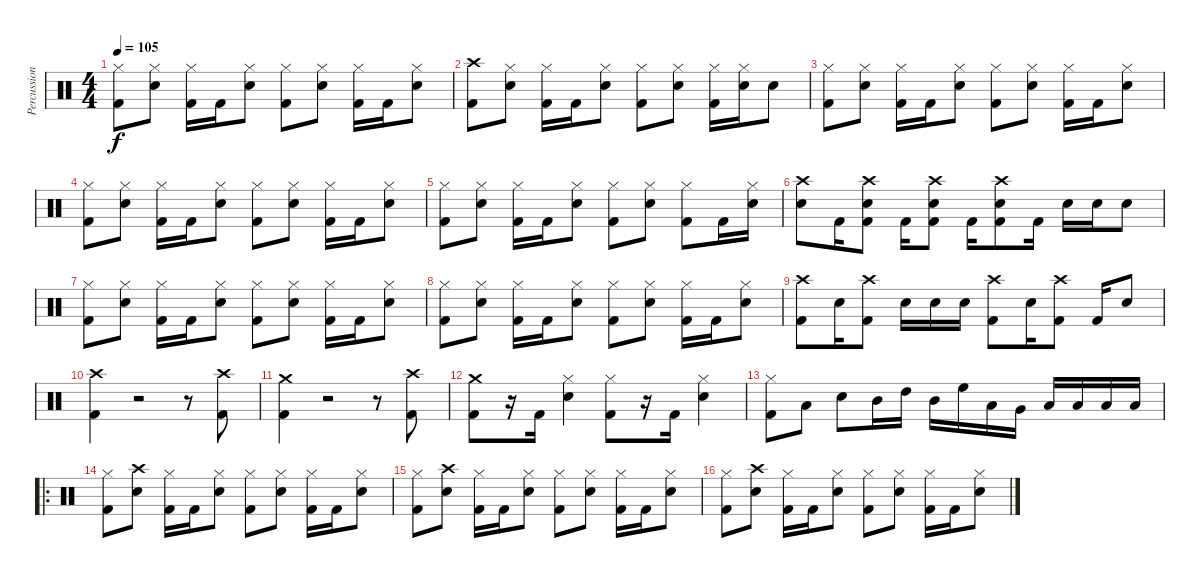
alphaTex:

\track ("Percussion" "Percussion") {instrument percussion}
\staff {score}
\articulation defaults
\ts (4 4)
\tempo 105
\clef neutral
\ks c
("Hi-Hat (closed)" "Kick (hit) 2").8{dy f} ("Hi-Hat (closed)" "Snare (hit) 2").8 ("Hi-Hat (closed)" "Kick (hit) 2").16 "Kick (hit) 2".16 ("Hi-Hat (closed)" "Snare (hit) 2").8 ("Hi-Hat (closed)" "Kick (hit) 2").8 ("Hi-Hat (closed)" "Snare (hit) 2").8 ("Hi-Hat (closed)" "Kick (hit) 2").16 "Kick (hit) 2".16 ("Hi-Hat (closed)" "Snare (hit) 2").8 |
("Crash high (hit)" "Kick (hit) 2").8 ("Hi-Hat (closed)" "Snare (hit) 2").8 ("Hi-Hat (closed)" "Kick (hit) 2").16 "Kick (hit) 2".16 ("Hi-Hat (closed)" "Snare (hit) 2").8 ("Hi-Hat (closed)" "Kick (hit) 2").8 ("Hi-Hat (closed)" "Snare (hit) 2").8 ("Hi-Hat (closed)" "Kick (hit) 2").16 ("Hi-Hat (closed)" "Snare (hit) 2").16 "Snare (hit) 2".8 |
("Hi-Hat (closed)" "Kick (hit) 2").8 ("Hi-Hat (closed)" "Snare (hit) 2").8 ("Hi-Hat (closed)" "Kick (hit) 2").16 "Kick (hit) 2".16 ("Hi-Hat (closed)" "Snare (hit) 2").8 ("Hi-Hat (closed)" "Kick (hit) 2").8 ("Hi-Hat (closed)" "Snare (hit) 2").8 ("Hi-Hat (closed)" "Kick (hit) 2").16 "Kick (hit) 2".16 ("Hi-Hat (closed)" "Snare (hit) 2").8 |
("Hi-Hat (closed)" "Kick (hit) 2").8 ("Hi-Hat (closed)" "Snare (hit) 2").8 ("Hi-Hat (closed)" "Kick (hit) 2").16 "Kick (hit) 2".16 ("Hi-Hat (closed)" "Snare (hit) 2").8 ("Hi-Hat (closed)" "Kick (hit) 2").8 ("Hi-Hat (closed)" "Snare (hit) 2").8 ("Hi-Hat (closed)" "Kick (hit) 2").16 "Kick (hit) 2".16 ("Hi-Hat (closed)" "Snare (hit) 2").8 |
("Hi-Hat (closed)" "Kick (hit) 2").8 ("Hi-Hat (closed)" "Snare (hit) 2").8 ("Hi-Hat (closed)" "Kick (hit) 2").16 "Kick (hit) 2".16 ("Hi-Hat (closed)" "Snare (hit) 2").8 ("Hi-Hat (closed)" "Kick (hit) 2").8 ("Hi-Hat (closed)" "Snare (hit) 2").8 ("Hi-Hat (closed)" "Kick (hit) 2").8 "Kick (hit) 2".16 ("Hi-Hat (closed)" "Snare (hit) 2").16 |
("Crash high (hit)" "Snare (hit) 2").8 "Kick (hit) 2".16 ("Crash high (hit)" "Snare (hit) 2" "Kick (hit) 2").8 "Kick (hit) 2".16 ("Crash high (hit)" "Snare (hit) 2" "Kick (hit) 2").8 "Kick (hit) 2".16 ("Crash high (hit)" "Snare (hit) 2" "Kick (hit) 2").8 "Kick (hit) 2".16 "Snare (hit) 2".16 "Snare (hit) 2".16 "Snare (hit) 2".8 |
("Hi-Hat (closed)" "Kick (hit) 2").8 ("Hi-Hat (closed)" "Snare (hit) 2").8 ("Hi-Hat (closed)" "Kick (hit) 2").16 "Kick (hit) 2".16 ("Hi-Hat (closed)" "Snare (hit) 2").8 ("Hi-Hat (closed)" "Kick (hit) 2").8 ("Hi-Hat (closed)" "Snare (hit) 2").8 ("Hi-Hat (closed)" "Kick (hit) 2").16 "Kick (hit) 2".16 ("Hi-Hat (closed)" "Snare (hit) 2").8 |
("Hi-Hat (closed)" "Kick (hit) 2").8 ("Hi-Hat (closed)" "Snare (hit) 2").8 ("Hi-Hat (closed)" "Kick (hit) 2").16 "Kick (hit) 2".16 ("Hi-Hat (closed)" "Snare (hit) 2").8 ("Hi-Hat (closed)" "Kick (hit) 2").8 ("Hi-Hat (closed)" "Snare (hit) 2").8 ("Hi-Hat (closed)" "Kick (hit) 2").16 "Kick (hit) 2".16 ("Hi-Hat (closed)" "Snare (hit) 2").8 |
("Crash high (hit)" "Kick (hit) 2").8 "Snare (hit) 2".16 ("Crash high (hit)" "Kick (hit) 2").8 "Snare (hit) 2".16 "Snare (hit) 2".16 "Snare (hit) 2".16 ("Crash high (hit)" "Kick (hit) 2").8 "Snare (hit) 2".16 ("Crash high (hit)" "Kick (hit) 2").8 "Kick (hit) 2".16 "Snare (hit) 2".8 |
("Crash high (hit)" "Kick (hit) 2").4 r.2 r.8 ("Crash high (hit)" "Kick (hit) 2").8 |
("Crash medium (hit)" "Kick (hit) 2").4 r.2 r.8 ("Crash high (hit)" "Kick (hit) 2").8 |
("Crash medium (hit)" "Kick (hit) 2").8 r.16 "Kick (hit) 2".16 ("Hi-Hat (closed)" "Snare (hit) 2").4 ("Hi-Hat (closed)" "Kick (hit) 2").8 r.16 "Kick (hit) 2".16 ("Hi-Hat (closed)" "Snare (hit) 2").4 |
("Hi-Hat (closed)" "Kick (hit) 2").8 "Low Tom (hit)".8 "Snare (hit) 2".8 "Mid Tom (hit)".16 "High Tom (hit)".16 "Mid Tom (hit)".16 "High Floor Tom (hit)".16 "Low Tom (hit)".16 "Very Low Tom (hit)".16 "Low Tom (hit)".16 "Low Floor Tom (hit)".16 "Low Tom (hit)".16 "Low Floor Tom (hit)".16 |
\ro
("Hi-Hat (closed)" "Kick (hit) 2").8 ("Crash high (hit)" "Snare (hit) 2").8 ("Hi-Hat (closed)" "Kick (hit) 2").16 "Kick (hit) 2".16 ("Hi-Hat (closed)" "Snare (hit) 2").8 ("Hi-Hat (closed)" "Kick (hit) 2").8 ("Hi-Hat (closed)" "Snare (hit) 2").8 ("Hi-Hat (closed)" "Kick (hit) 2").16 "Kick (hit) 2".16 ("Hi-Hat (closed)" "Snare (hit) 2").8 |
("Hi-Hat (closed)" "Kick (hit) 2").8 ("Crash high (hit)" "Snare (hit) 2").8 ("Hi-Hat (closed)" "Kick (hit) 2").16 "Kick (hit) 2".16 ("Hi-Hat (closed)" "Snare (hit) 2").8 ("Hi-Hat (closed)" "Kick (hit) 2").8 ("Hi-Hat (closed)" "Snare (hit) 2").8 ("Hi-Hat (closed)" "Kick (hit) 2").16 "Kick (hit) 2".16 ("Hi-Hat (closed)" "Snare (hit) 2").8 |
("Hi-Hat (closed)" "Kick (hit) 2").8 ("Crash high (hit)" "Snare (hit) 2").8 ("Hi-Hat (closed)" "Kick (hit) 2").16 "Kick (hit) 2".16 ("Hi-Hat (closed)" "Snare (hit) 2").8 ("Hi-Hat (closed)" "Kick (hit) 2").8 ("Hi-Hat (closed)" "Snare (hit) 2").8 ("Hi-Hat (closed)" "Kick (hit) 2").16 "Kick (hit) 2".16 ("Hi-Hat (closed)" "Snare (hit) 2").8
